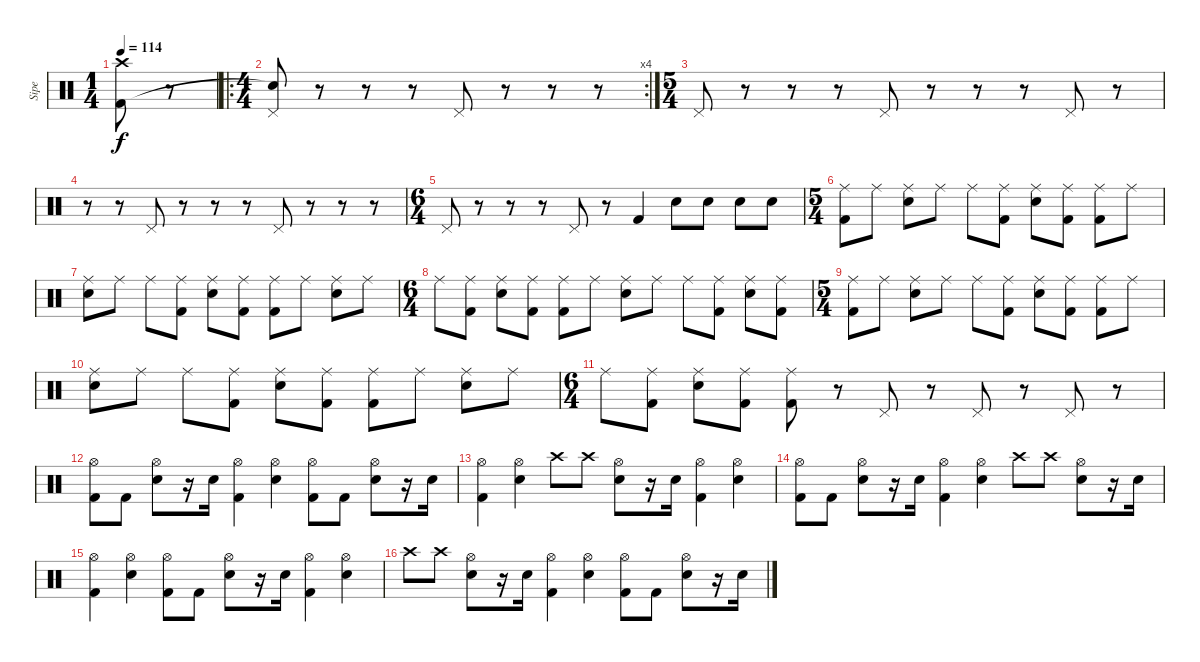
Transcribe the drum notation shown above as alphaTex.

\track ("Sipe" "Sipe") {instrument percussion}
\staff {score}
\articulation defaults
\ts (1 4)
\tempo 114
\clef neutral
\ks c
("Crash high (hit)" "Kick (hit) 2").8{dy f} r.8 |
\ro
\rc 4
\ts (4 4)
("Pedal Hi-Hat (hit)" "Snare (hit)"{t}).8 r.8 r.8 r.8 "Pedal Hi-Hat (hit)".8 r.8 r.8 r.8 |
\ts (5 4)
"Pedal Hi-Hat (hit)".8 r.8 r.8 r.8 "Pedal Hi-Hat (hit)".8 r.8 r.8 r.8 "Pedal Hi-Hat (hit)".8 r.8 |
r.8 r.8 "Pedal Hi-Hat (hit)".8 r.8 r.8 r.8 "Pedal Hi-Hat (hit)".8 r.8 r.8 r.8 |
\ts (6 4)
"Pedal Hi-Hat (hit)".8 r.8 r.8 r.8 "Pedal Hi-Hat (hit)".8 r.8 "Kick (hit) 2".4 "Snare (hit) 2".8 "Snare (hit) 2".8 "Snare (hit) 2".8 "Snare (hit) 2".8 |
\ts (5 4)
("Ride (middle)" "Kick (hit) 2").8 "Ride (middle)".8 ("Ride (middle)" "Snare (hit) 2").8 "Ride (middle)".8 "Ride (middle)".8 ("Ride (middle)" "Kick (hit) 2").8 ("Ride (middle)" "Snare (hit) 2").8 ("Ride (middle)" "Kick (hit) 2").8 ("Ride (middle)" "Kick (hit) 2").8 "Ride (middle)".8 |
("Ride (middle)" "Snare (hit) 2").8 "Ride (middle)".8 "Ride (middle)".8 ("Ride (middle)" "Kick (hit) 2").8 ("Ride (middle)" "Snare (hit) 2").8 ("Ride (middle)" "Kick (hit) 2").8 ("Ride (middle)" "Kick (hit) 2").8 "Ride (middle)".8 ("Ride (middle)" "Snare (hit) 2").8 "Ride (middle)".8 |
\ts (6 4)
"Ride (middle)".8 ("Ride (middle)" "Kick (hit) 2").8 ("Ride (middle)" "Snare (hit) 2").8 ("Ride (middle)" "Kick (hit) 2").8 ("Ride (middle)" "Kick (hit) 2").8 "Ride (middle)".8 ("Ride (middle)" "Snare (hit) 2").8 "Ride (middle)".8 "Ride (middle)".8 ("Ride (middle)" "Kick (hit) 2").8 ("Ride (middle)" "Snare (hit) 2").8 ("Ride (middle)" "Kick (hit) 2").8 |
\ts (5 4)
("Ride (middle)" "Kick (hit) 2").8 "Ride (middle)".8 ("Ride (middle)" "Snare (hit) 2").8 "Ride (middle)".8 "Ride (middle)".8 ("Ride (middle)" "Kick (hit) 2").8 ("Ride (middle)" "Snare (hit) 2").8 ("Ride (middle)" "Kick (hit) 2").8 ("Ride (middle)" "Kick (hit) 2").8 "Ride (middle)".8 |
("Ride (middle)" "Snare (hit) 2").8 "Ride (middle)".8 "Ride (middle)".8 ("Ride (middle)" "Kick (hit) 2").8 ("Ride (middle)" "Snare (hit) 2").8 ("Ride (middle)" "Kick (hit) 2").8 ("Ride (middle)" "Kick (hit) 2").8 "Ride (middle)".8 ("Ride (middle)" "Snare (hit) 2").8 "Ride (middle)".8 |
\ts (6 4)
"Ride (middle)".8 ("Ride (middle)" "Kick (hit) 2").8 ("Ride (middle)" "Snare (hit) 2").8 ("Ride (middle)" "Kick (hit) 2").8 ("Ride (middle)" "Kick (hit) 2").8 r.8 "Pedal Hi-Hat (hit)".8 r.8 "Pedal Hi-Hat (hit)".8 r.8 "Pedal Hi-Hat (hit)".8 r.8 |
("Hi-Hat (open)" "Kick (hit) 2").8 "Kick (hit) 2".8 ("Hi-Hat (open)" "Snare (hit) 2").8 r.16 "Snare (hit) 2".16 ("Hi-Hat (open)" "Kick (hit) 2").4 ("Hi-Hat (open)" "Snare (hit) 2").4 ("Hi-Hat (open)" "Kick (hit) 2").8 "Kick (hit) 2".8 ("Hi-Hat (open)" "Snare (hit) 2").8 r.16 "Snare (hit) 2".16 |
("Hi-Hat (open)" "Kick (hit) 2").4 ("Hi-Hat (open)" "Snare (hit) 2").4 "Crash high (hit)".8 "Crash high (hit)".8 ("Hi-Hat (open)" "Snare (hit) 2").8 r.16 "Snare (hit) 2".16 ("Hi-Hat (open)" "Kick (hit) 2").4 ("Hi-Hat (open)" "Snare (hit) 2").4 |
("Hi-Hat (open)" "Kick (hit) 2").8 "Kick (hit) 2".8 ("Hi-Hat (open)" "Snare (hit) 2").8 r.16 "Snare (hit) 2".16 ("Hi-Hat (open)" "Kick (hit) 2").4 ("Hi-Hat (open)" "Snare (hit) 2").4 "Crash high (hit)".8 "Crash high (hit)".8 ("Hi-Hat (open)" "Snare (hit) 2").8 r.16 "Snare (hit) 2".16 |
("Hi-Hat (open)" "Kick (hit) 2").4 ("Hi-Hat (open)" "Snare (hit) 2").4 ("Hi-Hat (open)" "Kick (hit) 2").8 "Kick (hit) 2".8 ("Hi-Hat (open)" "Snare (hit) 2").8 r.16 "Snare (hit) 2".16 ("Hi-Hat (open)" "Kick (hit) 2").4 ("Hi-Hat (open)" "Snare (hit) 2").4 |
"Crash high (hit)".8 "Crash high (hit)".8 ("Hi-Hat (open)" "Snare (hit) 2").8 r.16 "Snare (hit) 2".16 ("Hi-Hat (open)" "Kick (hit) 2").4 ("Hi-Hat (open)" "Snare (hit) 2").4 ("Hi-Hat (open)" "Kick (hit) 2").8 "Kick (hit) 2".8 ("Hi-Hat (open)" "Snare (hit) 2").8 r.16 "Snare (hit) 2".16
